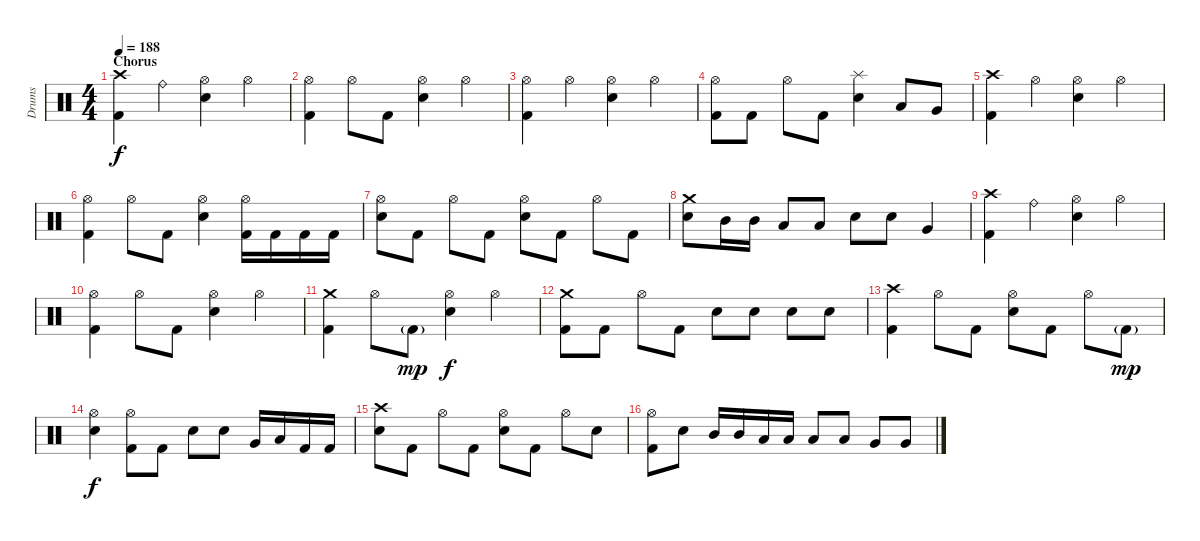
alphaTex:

\track ("Drums" "Drums") {instrument percussion}
\staff {score}
\articulation defaults
\ts (4 4)
\section ("" "Chorus")
\tempo 188
\clef neutral
\ks c
("Crash high (hit)" "Kick (hit) 2").4{dy f} "Ride (bell)".4 ("Hi-Hat (open)" "Electric Snare (hit)").4 "Hi-Hat (open)".4 |
("Hi-Hat (open)" "Kick (hit) 2").4 "Hi-Hat (open)".8 "Kick (hit) 2".8 ("Hi-Hat (open)" "Electric Snare (hit)").4 "Hi-Hat (open)".4 |
("Hi-Hat (open)" "Kick (hit) 2").4 "Hi-Hat (open)".4 ("Hi-Hat (open)" "Electric Snare (hit)").4 "Hi-Hat (open)".4 |
("Hi-Hat (open)" "Kick (hit) 2").8 "Kick (hit) 2".8 "Hi-Hat (open)".8 "Kick (hit) 2".8 ("Splash (hit)" "Electric Snare (hit)").4 "Low Tom (hit)".8 "Very Low Tom (hit)".8 |
("Crash high (hit)" "Kick (hit) 2").4 "Hi-Hat (open)".4 ("Hi-Hat (open)" "Electric Snare (hit)").4 "Hi-Hat (open)".4 |
("Hi-Hat (open)" "Kick (hit) 2").4 "Hi-Hat (open)".8 "Kick (hit) 2".8 ("Hi-Hat (open)" "Electric Snare (hit)").4 ("Hi-Hat (open)" "Kick (hit) 2").16 "Kick (hit) 2".16 "Kick (hit) 2".16 "Kick (hit) 2".16 |
("Hi-Hat (open)" "Electric Snare (hit)").8 "Kick (hit) 2".8 "Hi-Hat (open)".8 "Kick (hit) 2".8 ("Hi-Hat (open)" "Electric Snare (hit)").8 "Kick (hit) 2".8 "Hi-Hat (open)".8 "Kick (hit) 2".8 |
("Crash medium (hit)" "Electric Snare (hit)").8 "Mid Tom (hit)".16 "Mid Tom (hit)".16 "Low Tom (hit)".8 "Low Tom (hit)".8 "Electric Snare (hit)".8 "Electric Snare (hit)".8 "Very Low Tom (hit)".4 |
("Crash high (hit)" "Kick (hit) 2").4 "Ride (bell)".4 ("Hi-Hat (open)" "Electric Snare (hit)").4 "Hi-Hat (open)".4 |
("Hi-Hat (open)" "Kick (hit) 2").4 "Hi-Hat (open)".8 "Kick (hit) 2".8 ("Hi-Hat (open)" "Electric Snare (hit)").4 "Hi-Hat (open)".4 |
("Crash medium (hit)" "Kick (hit) 2").4 "Hi-Hat (open)".8 "Kick (hit) 2"{g}.8{dy mp} ("Hi-Hat (open)" "Electric Snare (hit)").4{dy f} "Hi-Hat (open)".4 |
("Crash medium (hit)" "Kick (hit) 2").8 "Kick (hit) 2".8 "Hi-Hat (open)".8 "Kick (hit) 2".8 "Electric Snare (hit)".8 "Electric Snare (hit)".8 "Electric Snare (hit)".8 "Electric Snare (hit)".8 |
("Crash high (hit)" "Kick (hit) 2").4 "Hi-Hat (open)".8 "Kick (hit) 2".8 ("Hi-Hat (open)" "Electric Snare (hit)").8 "Kick (hit) 2".8 "Hi-Hat (open)".8 "Kick (hit) 2"{g}.8{dy mp} |
("Hi-Hat (open)" "Electric Snare (hit)").4{dy f} ("Hi-Hat (open)" "Kick (hit) 2").8 "Kick (hit) 2".8 "Electric Snare (hit)".8 "Electric Snare (hit)".8 "Very Low Tom (hit)".16 "Low Tom (hit)".16 "Kick (hit) 2".16 "Kick (hit) 2".16 |
("Crash high (hit)" "Electric Snare (hit)").8 "Kick (hit) 2".8 "Hi-Hat (open)".8 "Kick (hit) 2".8 ("Hi-Hat (open)" "Electric Snare (hit)").8 "Kick (hit) 2".8 "Hi-Hat (open)".8 "Electric Snare (hit)".8 |
("Hi-Hat (open)" "Kick (hit) 2").8 "Electric Snare (hit)".8 "Mid Tom (hit)".16 "Mid Tom (hit)".16 "Low Tom (hit)".16 "Low Tom (hit)".16 "Low Tom (hit)".8 "Low Tom (hit)".8 "Very Low Tom (hit)".8 "Very Low Tom (hit)".8
